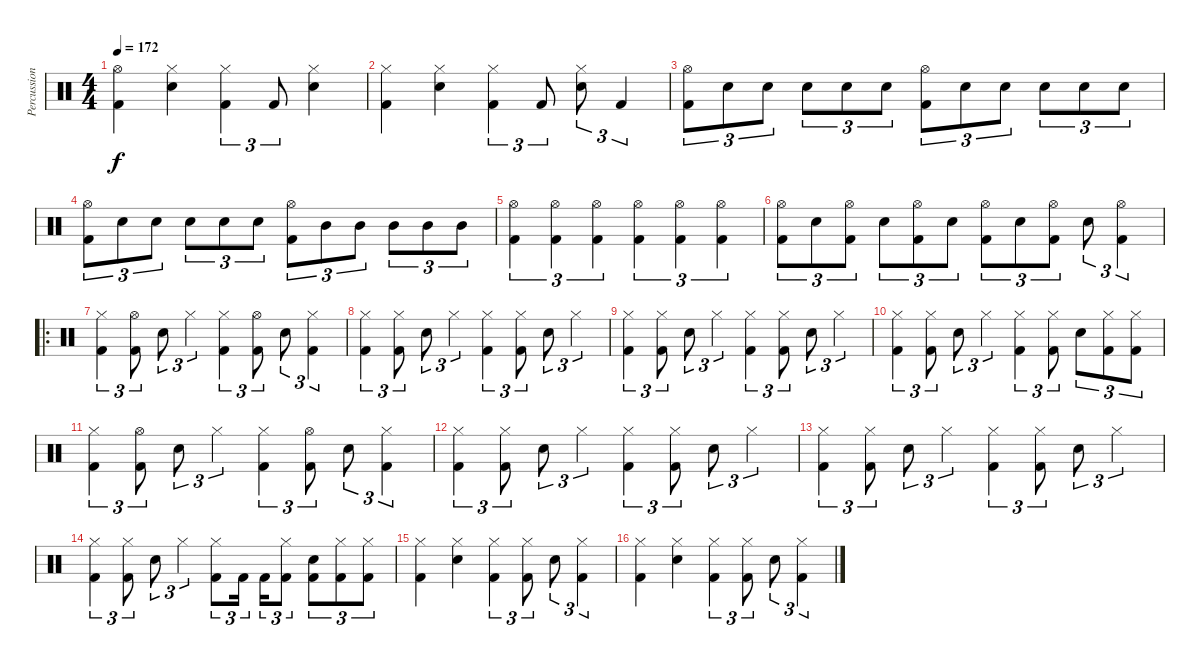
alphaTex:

\track ("Percussions" "Percussion") {instrument percussion}
\staff {score}
\articulation defaults
\ts (4 4)
\tempo 172
\clef neutral
\ks c
("Hi-Hat (open)" "Kick (hit) 2").4{dy f} ("Hi-Hat (closed)" "Snare (hit) 2").4 ("Hi-Hat (closed)" "Kick (hit) 2").4{tu (3 2)} "Kick (hit) 2".8{tu (3 2)} ("Hi-Hat (closed)" "Snare (hit) 2").4 |
("Hi-Hat (closed)" "Kick (hit) 2").4 ("Hi-Hat (closed)" "Snare (hit) 2").4 ("Hi-Hat (closed)" "Kick (hit) 2").4{tu (3 2)} "Kick (hit) 2".8{tu (3 2)} ("Hi-Hat (closed)" "Snare (hit) 2").8{tu (3 2)} "Kick (hit) 2".4{tu (3 2)} |
("Hi-Hat (open)" "Kick (hit) 2").8{tu (3 2)} "Snare (hit) 2".8{tu (3 2)} "Snare (hit) 2".8{tu (3 2)} "Snare (hit) 2".8{tu (3 2)} "Snare (hit) 2".8{tu (3 2)} "Snare (hit) 2".8{tu (3 2)} ("Hi-Hat (open)" "Kick (hit) 2").8{tu (3 2)} "Snare (hit) 2".8{tu (3 2)} "Snare (hit) 2".8{tu (3 2)} "Snare (hit) 2".8{tu (3 2)} "Snare (hit) 2".8{tu (3 2)} "Snare (hit) 2".8{tu (3 2)} |
("Hi-Hat (open)" "Kick (hit) 2").8{tu (3 2)} "Snare (hit) 2".8{tu (3 2)} "Snare (hit) 2".8{tu (3 2)} "Snare (hit) 2".8{tu (3 2)} "Snare (hit) 2".8{tu (3 2)} "Snare (hit) 2".8{tu (3 2)} ("Hi-Hat (open)" "Kick (hit) 2").8{tu (3 2)} "Mid Tom (hit)".8{tu (3 2)} "Mid Tom (hit)".8{tu (3 2)} "Mid Tom (hit)".8{tu (3 2)} "Mid Tom (hit)".8{tu (3 2)} "Mid Tom (hit)".8{tu (3 2)} |
("Hi-Hat (open)" "Kick (hit) 2").4{tu (3 2)} ("Hi-Hat (open)" "Kick (hit) 2").4{tu (3 2)} ("Hi-Hat (open)" "Kick (hit) 2").4{tu (3 2)} ("Hi-Hat (open)" "Kick (hit) 2").4{tu (3 2)} ("Hi-Hat (open)" "Kick (hit) 2").4{tu (3 2)} ("Hi-Hat (open)" "Kick (hit) 2").4{tu (3 2)} |
("Hi-Hat (open)" "Kick (hit) 2").8{tu (3 2)} "Snare (hit) 2".8{tu (3 2)} ("Hi-Hat (open)" "Kick (hit) 2").8{tu (3 2)} "Snare (hit) 2".8{tu (3 2)} ("Hi-Hat (open)" "Kick (hit) 2").8{tu (3 2)} "Snare (hit) 2".8{tu (3 2)} ("Hi-Hat (open)" "Kick (hit) 2").8{tu (3 2)} "Snare (hit) 2".8{tu (3 2)} ("Hi-Hat (open)" "Kick (hit) 2").8{tu (3 2)} "Snare (hit) 2".8{tu (3 2)} ("Hi-Hat (open)" "Kick (hit) 2").4{tu (3 2)} |
\ro
("Hi-Hat (closed)" "Kick (hit) 2").4{tu (3 2)} ("Hi-Hat (open)" "Kick (hit) 2").8{tu (3 2)} "Snare (hit) 2".8{tu (3 2)} "Hi-Hat (closed)".4{tu (3 2)} ("Hi-Hat (closed)" "Kick (hit) 2").4{tu (3 2)} ("Hi-Hat (open)" "Kick (hit) 2").8{tu (3 2)} "Snare (hit) 2".8{tu (3 2)} ("Hi-Hat (closed)" "Kick (hit) 2").4{tu (3 2)} |
("Hi-Hat (closed)" "Kick (hit) 2").4{tu (3 2)} ("Hi-Hat (closed)" "Kick (hit) 2").8{tu (3 2)} "Snare (hit) 2".8{tu (3 2)} "Hi-Hat (closed)".4{tu (3 2)} ("Hi-Hat (closed)" "Kick (hit) 2").4{tu (3 2)} ("Hi-Hat (closed)" "Kick (hit) 2").8{tu (3 2)} "Snare (hit) 2".8{tu (3 2)} "Hi-Hat (closed)".4{tu (3 2)} |
("Hi-Hat (closed)" "Kick (hit) 2").4{tu (3 2)} ("Hi-Hat (closed)" "Kick (hit) 2").8{tu (3 2)} "Snare (hit) 2".8{tu (3 2)} "Hi-Hat (closed)".4{tu (3 2)} ("Hi-Hat (closed)" "Kick (hit) 2").4{tu (3 2)} ("Hi-Hat (closed)" "Kick (hit) 2").8{tu (3 2)} "Snare (hit) 2".8{tu (3 2)} "Hi-Hat (closed)".4{tu (3 2)} |
("Hi-Hat (closed)" "Kick (hit) 2").4{tu (3 2)} ("Hi-Hat (closed)" "Kick (hit) 2").8{tu (3 2)} "Snare (hit) 2".8{tu (3 2)} "Hi-Hat (closed)".4{tu (3 2)} ("Hi-Hat (closed)" "Kick (hit) 2").4{tu (3 2)} ("Hi-Hat (closed)" "Kick (hit) 2").8{tu (3 2)} "Snare (hit) 2".8{tu (3 2)} ("Hi-Hat (closed)" "Kick (hit) 2").8{tu (3 2)} ("Hi-Hat (closed)" "Kick (hit) 2").8{tu (3 2)} |
("Hi-Hat (closed)" "Kick (hit) 2").4{tu (3 2)} ("Hi-Hat (open)" "Kick (hit) 2").8{tu (3 2)} "Snare (hit) 2".8{tu (3 2)} "Hi-Hat (closed)".4{tu (3 2)} ("Hi-Hat (closed)" "Kick (hit) 2").4{tu (3 2)} ("Hi-Hat (open)" "Kick (hit) 2").8{tu (3 2)} "Snare (hit) 2".8{tu (3 2)} ("Hi-Hat (closed)" "Kick (hit) 2").4{tu (3 2)} |
("Hi-Hat (closed)" "Kick (hit) 2").4{tu (3 2)} ("Hi-Hat (closed)" "Kick (hit) 2").8{tu (3 2)} "Snare (hit) 2".8{tu (3 2)} "Hi-Hat (closed)".4{tu (3 2)} ("Hi-Hat (closed)" "Kick (hit) 2").4{tu (3 2)} ("Hi-Hat (closed)" "Kick (hit) 2").8{tu (3 2)} "Snare (hit) 2".8{tu (3 2)} "Hi-Hat (closed)".4{tu (3 2)} |
("Hi-Hat (closed)" "Kick (hit) 2").4{tu (3 2)} ("Hi-Hat (closed)" "Kick (hit) 2").8{tu (3 2)} "Snare (hit) 2".8{tu (3 2)} "Hi-Hat (closed)".4{tu (3 2)} ("Hi-Hat (closed)" "Kick (hit) 2").4{tu (3 2)} ("Hi-Hat (closed)" "Kick (hit) 2").8{tu (3 2)} "Snare (hit) 2".8{tu (3 2)} "Hi-Hat (closed)".4{tu (3 2)} |
("Hi-Hat (closed)" "Kick (hit) 2").4{tu (3 2)} ("Hi-Hat (closed)" "Kick (hit) 2").8{tu (3 2)} "Snare (hit) 2".8{tu (3 2)} "Hi-Hat (closed)".4{tu (3 2)} ("Hi-Hat (closed)" "Kick (hit) 2").8{tu (3 2)} "Kick (hit) 2".16{tu (3 2)} "Kick (hit) 2".16{tu (3 2)} ("Hi-Hat (closed)" "Kick (hit) 2").8{tu (3 2)} ("Snare (hit) 2" "Kick (hit) 2").8{tu (3 2)} ("Hi-Hat (closed)" "Kick (hit) 2").8{tu (3 2)} ("Hi-Hat (closed)" "Kick (hit) 2").8{tu (3 2)} |
("Hi-Hat (closed)" "Kick (hit) 2").4 ("Hi-Hat (closed)" "Snare (hit) 2").4 ("Hi-Hat (closed)" "Kick (hit) 2").4{tu (3 2)} ("Hi-Hat (closed)" "Kick (hit) 2").8{tu (3 2)} "Snare (hit) 2".8{tu (3 2)} ("Hi-Hat (closed)" "Kick (hit) 2").4{tu (3 2)} |
("Hi-Hat (closed)" "Kick (hit) 2").4 ("Hi-Hat (closed)" "Snare (hit) 2").4 ("Hi-Hat (closed)" "Kick (hit) 2").4{tu (3 2)} ("Hi-Hat (closed)" "Kick (hit) 2").8{tu (3 2)} "Snare (hit) 2".8{tu (3 2)} ("Hi-Hat (closed)" "Kick (hit) 2").4{tu (3 2)}
